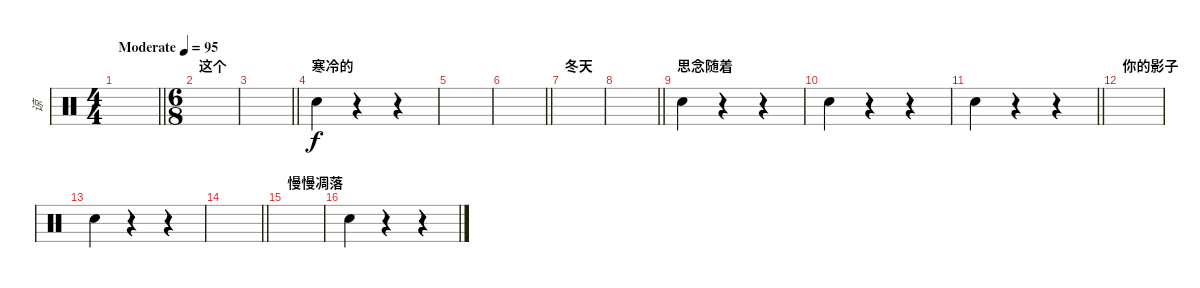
\track ("谅" "谅") {instrument percussion}
\staff {score}
\articulation defaults
\ts (4 4)
\tempo (95 "Moderate")
\clef neutral
\barLineRight lightlight
\ks c
|
\ts (6 8)
\section ("" "这个")
|
\barLineRight lightlight
|
\section ("" "寒冷的")
"Snare (hit)".4{volume 0} r.4 r.4 |
|
\barLineRight lightlight
|
\section ("" "冬天")
|
\barLineRight lightlight
|
\section ("" "思念随着")
"Snare (hit)".4 r.4 r.4 |
"Snare (hit)".4 r.4 r.4 |
\barLineRight lightlight "Snare (hit)".4
r.4 r.4 |
\section ("" "你的影子")
|
"Snare (hit)".4 r.4 r.4 |
\barLineRight lightlight
|
\section ("" "慢慢凋落")
|
"Snare (hit)".4 r.4 r.4{volume 0}
